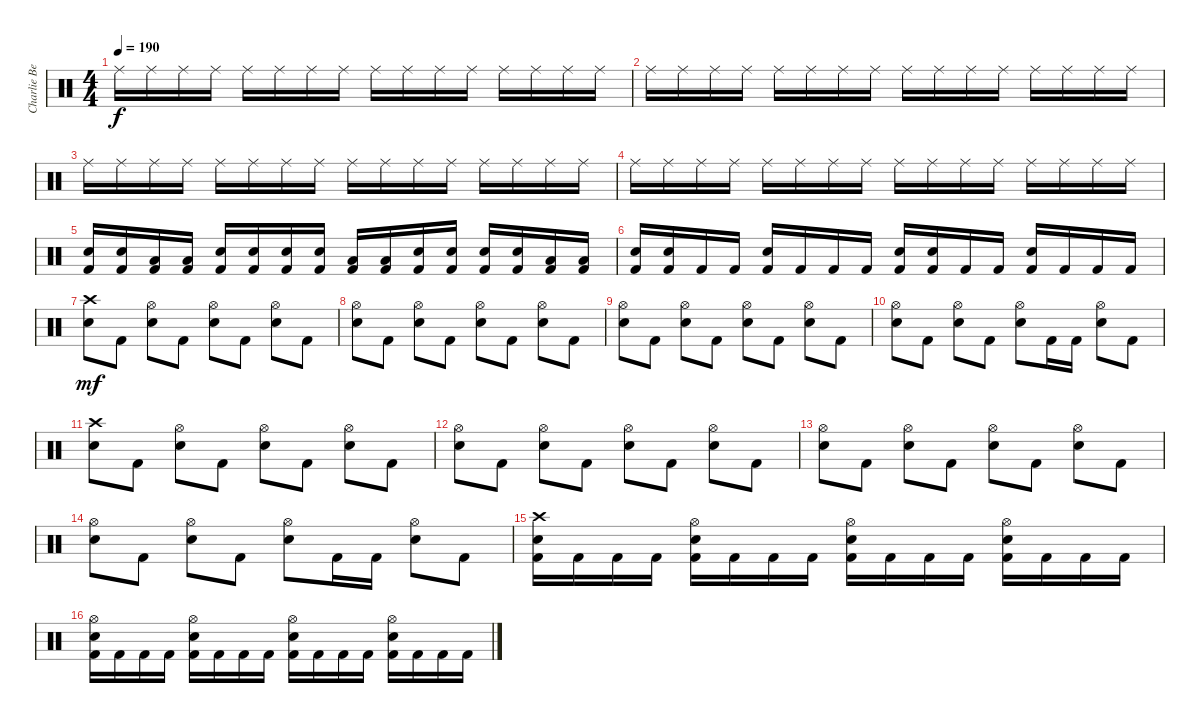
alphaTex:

\track ("Charlie Benante" "Charlie Be") {instrument percussion}
\staff {score}
\articulation defaults
\ts (4 4)
\tempo 190
\clef neutral
\ks c "Ride (middle)".16{dy f} "Ride (middle)".16 "Ride (middle)".16 "Ride (middle)".16 "Ride (middle)".16 "Ride (middle)".16 "Ride (middle)".16 "Ride (middle)".16 "Ride (middle)".16 "Ride (middle)".16 "Ride (middle)".16 "Ride (middle)".16 "Ride (middle)".16 "Ride (middle)".16 "Ride (middle)".16 "Ride (middle)".16
|
"Ride (middle)".16 "Ride (middle)".16 "Ride (middle)".16 "Ride (middle)".16 "Ride (middle)".16 "Ride (middle)".16 "Ride (middle)".16 "Ride (middle)".16 "Ride (middle)".16 "Ride (middle)".16 "Ride (middle)".16 "Ride (middle)".16 "Ride (middle)".16 "Ride (middle)".16 "Ride (middle)".16 "Ride (middle)".16 |
"Ride (middle)".16 "Ride (middle)".16 "Ride (middle)".16 "Ride (middle)".16 "Ride (middle)".16 "Ride (middle)".16 "Ride (middle)".16 "Ride (middle)".16 "Ride (middle)".16 "Ride (middle)".16 "Ride (middle)".16 "Ride (middle)".16 "Ride (middle)".16 "Ride (middle)".16 "Ride (middle)".16 "Ride (middle)".16 |
"Ride (middle)".16 "Ride (middle)".16 "Ride (middle)".16 "Ride (middle)".16 "Ride (middle)".16 "Ride (middle)".16 "Ride (middle)".16 "Ride (middle)".16 "Ride (middle)".16 "Ride (middle)".16 "Ride (middle)".16 "Ride (middle)".16 "Ride (middle)".16 "Ride (middle)".16 "Ride (middle)".16 "Ride (middle)".16 |
("Kick (hit) 2" "Snare (hit) 2").16 ("Kick (hit) 2" "Snare (hit) 2").16 ("Kick (hit) 2" "Low Tom (hit)").16 ("Kick (hit) 2" "Low Tom (hit)").16 ("Kick (hit) 2" "Snare (hit) 2").16 ("Kick (hit) 2" "Snare (hit) 2").16 ("Kick (hit) 2" "Snare (hit) 2").16 ("Kick (hit) 2" "Snare (hit) 2").16 ("Kick (hit) 2" "Low Tom (hit)").16 ("Kick (hit) 2" "Low Tom (hit)").16 ("Kick (hit) 2" "Snare (hit) 2").16 ("Kick (hit) 2" "Snare (hit) 2").16 ("Kick (hit) 2" "Snare (hit) 2").16 ("Kick (hit) 2" "Snare (hit) 2").16 ("Kick (hit) 2" "Low Tom (hit)").16 ("Kick (hit) 2" "Low Tom (hit)").16 |
("Kick (hit) 2" "Snare (hit) 2").16 ("Kick (hit) 2" "Snare (hit) 2").16 "Kick (hit) 2".16 "Kick (hit) 2".16 ("Kick (hit) 2" "Snare (hit) 2").16 "Kick (hit) 2".16 "Kick (hit) 2".16 "Kick (hit) 2".16 ("Kick (hit) 2" "Snare (hit) 2").16 ("Kick (hit) 2" "Snare (hit) 2").16 "Kick (hit) 2".16 "Kick (hit) 2".16 ("Kick (hit) 2" "Snare (hit) 2").16 "Kick (hit) 2".16 "Kick (hit) 2".16 "Kick (hit) 2".16 |
("Snare (hit) 2" "Crash high (hit)").8{dy mf} "Kick (hit) 2".8 ("Snare (hit) 2" "Hi-Hat (open)").8 "Kick (hit) 2".8 ("Snare (hit) 2" "Hi-Hat (open)").8 "Kick (hit) 2".8 ("Snare (hit) 2" "Hi-Hat (open)").8 "Kick (hit) 2".8 |
("Snare (hit) 2" "Hi-Hat (open)").8 "Kick (hit) 2".8 ("Snare (hit) 2" "Hi-Hat (open)").8 "Kick (hit) 2".8 ("Snare (hit) 2" "Hi-Hat (open)").8 "Kick (hit) 2".8 ("Snare (hit) 2" "Hi-Hat (open)").8 "Kick (hit) 2".8 |
("Snare (hit) 2" "Hi-Hat (open)").8 "Kick (hit) 2".8 ("Snare (hit) 2" "Hi-Hat (open)").8 "Kick (hit) 2".8 ("Snare (hit) 2" "Hi-Hat (open)").8 "Kick (hit) 2".8 ("Snare (hit) 2" "Hi-Hat (open)").8 "Kick (hit) 2".8 |
("Snare (hit) 2" "Hi-Hat (open)").8 "Kick (hit) 2".8 ("Snare (hit) 2" "Hi-Hat (open)").8 "Kick (hit) 2".8 ("Snare (hit) 2" "Hi-Hat (open)").8 "Kick (hit) 2".16 "Kick (hit) 2".16 ("Snare (hit) 2" "Hi-Hat (open)").8 "Kick (hit) 2".8 |
("Snare (hit) 2" "Crash high (hit)").8 "Kick (hit) 2".8 ("Snare (hit) 2" "Hi-Hat (open)").8 "Kick (hit) 2".8 ("Snare (hit) 2" "Hi-Hat (open)").8 "Kick (hit) 2".8 ("Snare (hit) 2" "Hi-Hat (open)").8 "Kick (hit) 2".8 |
("Snare (hit) 2" "Hi-Hat (open)").8 "Kick (hit) 2".8 ("Snare (hit) 2" "Hi-Hat (open)").8 "Kick (hit) 2".8 ("Snare (hit) 2" "Hi-Hat (open)").8 "Kick (hit) 2".8 ("Snare (hit) 2" "Hi-Hat (open)").8 "Kick (hit) 2".8 |
("Snare (hit) 2" "Hi-Hat (open)").8 "Kick (hit) 2".8 ("Snare (hit) 2" "Hi-Hat (open)").8 "Kick (hit) 2".8 ("Snare (hit) 2" "Hi-Hat (open)").8 "Kick (hit) 2".8 ("Snare (hit) 2" "Hi-Hat (open)").8 "Kick (hit) 2".8 |
("Snare (hit) 2" "Hi-Hat (open)").8 "Kick (hit) 2".8 ("Snare (hit) 2" "Hi-Hat (open)").8 "Kick (hit) 2".8 ("Snare (hit) 2" "Hi-Hat (open)").8 "Kick (hit) 2".16 "Kick (hit) 2".16 ("Snare (hit) 2" "Hi-Hat (open)").8 "Kick (hit) 2".8 |
("Kick (hit) 2" "Snare (hit) 2" "Crash high (hit)").16 "Kick (hit) 2".16 "Kick (hit) 2".16 "Kick (hit) 2".16 ("Kick (hit) 2" "Snare (hit) 2" "Hi-Hat (open)").16 "Kick (hit) 2".16 "Kick (hit) 2".16 "Kick (hit) 2".16 ("Kick (hit) 2" "Snare (hit) 2" "Hi-Hat (open)").16 "Kick (hit) 2".16 "Kick (hit) 2".16 "Kick (hit) 2".16 ("Kick (hit) 2" "Snare (hit) 2" "Hi-Hat (open)").16 "Kick (hit) 2".16 "Kick (hit) 2".16 "Kick (hit) 2".16 |
("Kick (hit) 2" "Snare (hit) 2" "Hi-Hat (open)").16 "Kick (hit) 2".16 "Kick (hit) 2".16 "Kick (hit) 2".16 ("Kick (hit) 2" "Snare (hit) 2" "Hi-Hat (open)").16 "Kick (hit) 2".16 "Kick (hit) 2".16 "Kick (hit) 2".16 ("Kick (hit) 2" "Snare (hit) 2" "Hi-Hat (open)").16 "Kick (hit) 2".16 "Kick (hit) 2".16 "Kick (hit) 2".16 ("Kick (hit) 2" "Snare (hit) 2" "Hi-Hat (open)").16 "Kick (hit) 2".16 "Kick (hit) 2".16 "Kick (hit) 2".16
